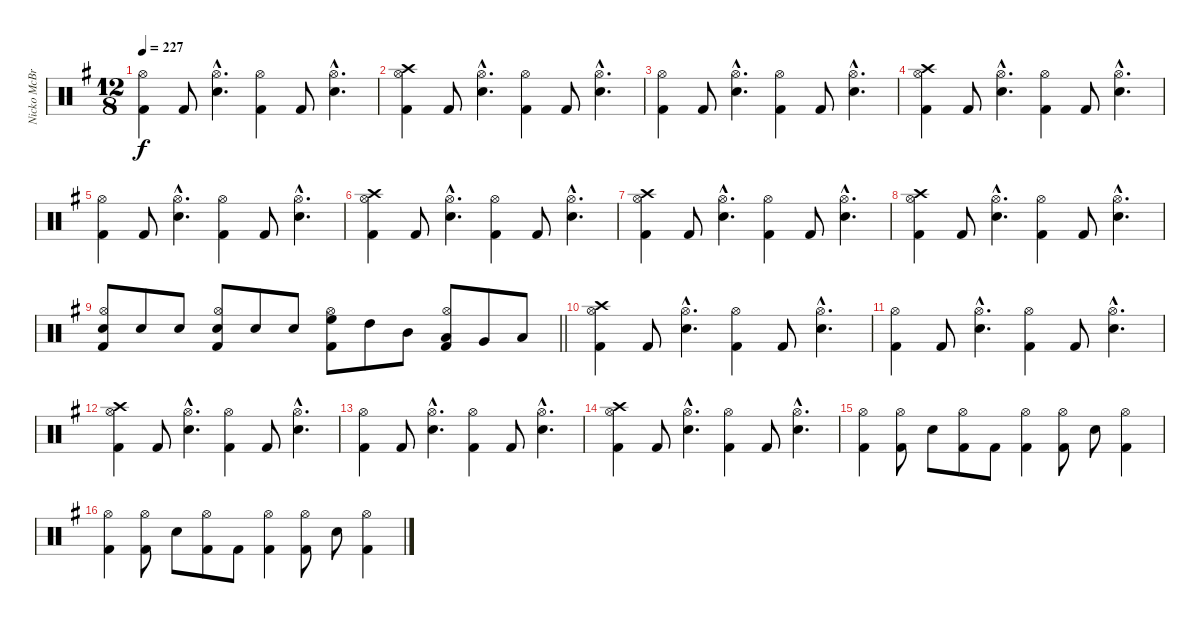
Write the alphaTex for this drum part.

\track ("Nicko McBrain" "Nicko McBr") {instrument percussion}
\staff {score}
\articulation defaults
\ts (12 8)
\tempo 227
\clef neutral
\ks g
("Kick (hit) 2" "Hi-Hat (open)").4{dy f} "Kick (hit) 2".8 ("Snare (hit) 2"{hac} "Hi-Hat (open)"{hac}).4{d} ("Kick (hit) 2" "Hi-Hat (open)").4 "Kick (hit) 2".8 ("Snare (hit) 2"{hac} "Hi-Hat (open)"{hac}).4{d} |
("Kick (hit) 2" "Hi-Hat (open)" "Crash high (hit)").4 "Kick (hit) 2".8 ("Snare (hit) 2"{hac} "Hi-Hat (open)"{hac}).4{d} ("Kick (hit) 2" "Hi-Hat (open)").4 "Kick (hit) 2".8 ("Snare (hit) 2"{hac} "Hi-Hat (open)"{hac}).4{d} |
("Kick (hit) 2" "Hi-Hat (open)").4 "Kick (hit) 2".8 ("Snare (hit) 2"{hac} "Hi-Hat (open)"{hac}).4{d} ("Kick (hit) 2" "Hi-Hat (open)").4 "Kick (hit) 2".8 ("Snare (hit) 2"{hac} "Hi-Hat (open)"{hac}).4{d} |
("Kick (hit) 2" "Hi-Hat (open)" "Crash high (hit)").4 "Kick (hit) 2".8 ("Snare (hit) 2"{hac} "Hi-Hat (open)"{hac}).4{d} ("Kick (hit) 2" "Hi-Hat (open)").4 "Kick (hit) 2".8 ("Snare (hit) 2"{hac} "Hi-Hat (open)"{hac}).4{d} |
("Kick (hit) 2" "Hi-Hat (open)").4 "Kick (hit) 2".8 ("Snare (hit) 2"{hac} "Hi-Hat (open)"{hac}).4{d} ("Kick (hit) 2" "Hi-Hat (open)").4 "Kick (hit) 2".8 ("Snare (hit) 2"{hac} "Hi-Hat (open)"{hac}).4{d} |
("Kick (hit) 2" "Hi-Hat (open)" "Crash high (hit)").4 "Kick (hit) 2".8 ("Snare (hit) 2"{hac} "Hi-Hat (open)"{hac}).4{d} ("Kick (hit) 2" "Hi-Hat (open)").4 "Kick (hit) 2".8 ("Snare (hit) 2"{hac} "Hi-Hat (open)"{hac}).4{d} |
("Kick (hit) 2" "Hi-Hat (open)" "Crash high (hit)").4 "Kick (hit) 2".8 ("Snare (hit) 2"{hac} "Hi-Hat (open)"{hac}).4{d} ("Kick (hit) 2" "Hi-Hat (open)").4 "Kick (hit) 2".8 ("Snare (hit) 2"{hac} "Hi-Hat (open)"{hac}).4{d} |
("Kick (hit) 2" "Hi-Hat (open)" "Crash high (hit)").4 "Kick (hit) 2".8 ("Snare (hit) 2"{hac} "Hi-Hat (open)"{hac}).4{d} ("Kick (hit) 2" "Hi-Hat (open)").4 "Kick (hit) 2".8 ("Snare (hit) 2"{hac} "Hi-Hat (open)"{hac}).4{d} |
\barLineRight lightlight
("Kick (hit) 2" "Snare (hit) 2" "Hi-Hat (open)").8 "Snare (hit) 2".8 "Snare (hit) 2".8 ("Kick (hit) 2" "Snare (hit) 2" "Hi-Hat (open)").8 "Snare (hit) 2".8 "Snare (hit) 2".8 ("Kick (hit) 2" "Hi-Hat (open)" "High Floor Tom (hit)").8 "High Tom (hit)".8 "Mid Tom (hit)".8 ("Kick (hit) 2" "Low Tom (hit)" "Hi-Hat (open)").8 "Very Low Tom (hit)".8 "Low Floor Tom (hit)".8 |
("Kick (hit) 2" "Hi-Hat (open)" "Crash high (hit)").4 "Kick (hit) 2".8 ("Snare (hit) 2"{hac} "Hi-Hat (open)"{hac}).4{d} ("Kick (hit) 2" "Hi-Hat (open)").4 "Kick (hit) 2".8 ("Snare (hit) 2"{hac} "Hi-Hat (open)"{hac}).4{d} |
("Kick (hit) 2" "Hi-Hat (open)").4 "Kick (hit) 2".8 ("Snare (hit) 2"{hac} "Hi-Hat (open)"{hac}).4{d} ("Kick (hit) 2" "Hi-Hat (open)").4 "Kick (hit) 2".8 ("Snare (hit) 2"{hac} "Hi-Hat (open)"{hac}).4{d} |
("Kick (hit) 2" "Hi-Hat (open)" "Crash high (hit)").4 "Kick (hit) 2".8 ("Snare (hit) 2"{hac} "Hi-Hat (open)"{hac}).4{d} ("Kick (hit) 2" "Hi-Hat (open)").4 "Kick (hit) 2".8 ("Snare (hit) 2"{hac} "Hi-Hat (open)"{hac}).4{d} |
("Kick (hit) 2" "Hi-Hat (open)").4 "Kick (hit) 2".8 ("Snare (hit) 2"{hac} "Hi-Hat (open)"{hac}).4{d} ("Kick (hit) 2" "Hi-Hat (open)").4 "Kick (hit) 2".8 ("Snare (hit) 2"{hac} "Hi-Hat (open)"{hac}).4{d} |
("Kick (hit) 2" "Hi-Hat (open)" "Crash high (hit)").4 "Kick (hit) 2".8 ("Snare (hit) 2"{hac} "Hi-Hat (open)"{hac}).4{d} ("Kick (hit) 2" "Hi-Hat (open)").4 "Kick (hit) 2".8 ("Snare (hit) 2"{hac} "Hi-Hat (open)"{hac}).4{d} |
("Kick (hit) 2" "Hi-Hat (open)").4 ("Kick (hit) 2" "Hi-Hat (open)").8 "Snare (hit) 2".8 ("Kick (hit) 2" "Hi-Hat (open)").8 "Kick (hit) 2".8 ("Kick (hit) 2" "Hi-Hat (open)").4 ("Kick (hit) 2" "Hi-Hat (open)").8 "Snare (hit) 2".8 ("Kick (hit) 2" "Hi-Hat (open)").4 |
("Kick (hit) 2" "Hi-Hat (open)").4 ("Kick (hit) 2" "Hi-Hat (open)").8 "Snare (hit) 2".8 ("Kick (hit) 2" "Hi-Hat (open)").8 "Kick (hit) 2".8 ("Kick (hit) 2" "Hi-Hat (open)").4 ("Kick (hit) 2" "Hi-Hat (open)").8 "Snare (hit) 2".8 ("Kick (hit) 2" "Hi-Hat (open)").4
